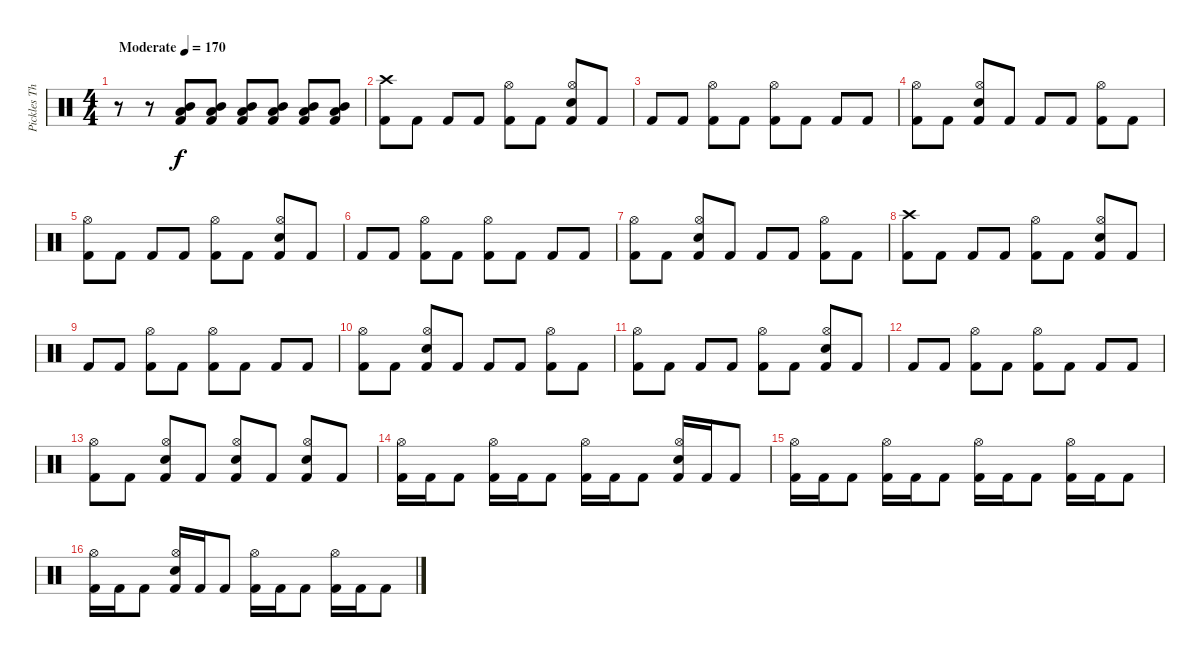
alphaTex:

\track ("Pickles The Drummer" "Pickles Th") {instrument percussion}
\staff {score}
\articulation defaults
\ts (4 4)
\tempo (170 "Moderate")
\clef neutral
\ks c
r.8{dy f} r.8 ("Kick (hit) 2" "Mid Tom (hit)" "Low Tom (hit)").8 ("Kick (hit) 2" "Mid Tom (hit)" "Low Tom (hit)").8 ("Kick (hit) 2" "Mid Tom (hit)" "Low Tom (hit)").8 ("Kick (hit) 2" "Mid Tom (hit)" "Low Tom (hit)").8 ("Kick (hit) 2" "Mid Tom (hit)" "Low Tom (hit)").8 ("Kick (hit) 2" "Mid Tom (hit)" "Low Tom (hit)").8 |
("Kick (hit) 2" "Crash high (hit)").8 "Kick (hit) 2".8 "Kick (hit) 2".8 "Kick (hit) 2".8 ("Kick (hit) 2" "Hi-Hat (open)").8 "Kick (hit) 2".8 ("Kick (hit) 2" "Hi-Hat (open)" "Snare (hit) 2").8 "Kick (hit) 2".8 |
"Kick (hit) 2".8 "Kick (hit) 2".8 ("Kick (hit) 2" "Hi-Hat (open)").8 "Kick (hit) 2".8 ("Kick (hit) 2" "Hi-Hat (open)").8 "Kick (hit) 2".8 "Kick (hit) 2".8 "Kick (hit) 2".8 |
("Kick (hit) 2" "Hi-Hat (open)").8 "Kick (hit) 2".8 ("Kick (hit) 2" "Hi-Hat (open)" "Snare (hit) 2").8 "Kick (hit) 2".8 "Kick (hit) 2".8 "Kick (hit) 2".8 ("Kick (hit) 2" "Hi-Hat (open)").8 "Kick (hit) 2".8 |
("Kick (hit) 2" "Hi-Hat (open)").8 "Kick (hit) 2".8 "Kick (hit) 2".8 "Kick (hit) 2".8 ("Kick (hit) 2" "Hi-Hat (open)").8 "Kick (hit) 2".8 ("Kick (hit) 2" "Hi-Hat (open)" "Snare (hit) 2").8 "Kick (hit) 2".8 |
"Kick (hit) 2".8 "Kick (hit) 2".8 ("Kick (hit) 2" "Hi-Hat (open)").8 "Kick (hit) 2".8 ("Kick (hit) 2" "Hi-Hat (open)").8 "Kick (hit) 2".8 "Kick (hit) 2".8 "Kick (hit) 2".8 |
("Kick (hit) 2" "Hi-Hat (open)").8 "Kick (hit) 2".8 ("Kick (hit) 2" "Hi-Hat (open)" "Snare (hit) 2").8 "Kick (hit) 2".8 "Kick (hit) 2".8 "Kick (hit) 2".8 ("Kick (hit) 2" "Hi-Hat (open)").8 "Kick (hit) 2".8 |
("Kick (hit) 2" "Crash high (hit)").8 "Kick (hit) 2".8 "Kick (hit) 2".8 "Kick (hit) 2".8 ("Kick (hit) 2" "Hi-Hat (open)").8 "Kick (hit) 2".8 ("Kick (hit) 2" "Hi-Hat (open)" "Snare (hit) 2").8 "Kick (hit) 2".8 |
"Kick (hit) 2".8 "Kick (hit) 2".8 ("Kick (hit) 2" "Hi-Hat (open)").8 "Kick (hit) 2".8 ("Kick (hit) 2" "Hi-Hat (open)").8 "Kick (hit) 2".8 "Kick (hit) 2".8 "Kick (hit) 2".8 |
("Kick (hit) 2" "Hi-Hat (open)").8 "Kick (hit) 2".8 ("Kick (hit) 2" "Hi-Hat (open)" "Snare (hit) 2").8 "Kick (hit) 2".8 "Kick (hit) 2".8 "Kick (hit) 2".8 ("Kick (hit) 2" "Hi-Hat (open)").8 "Kick (hit) 2".8 |
("Kick (hit) 2" "Hi-Hat (open)").8 "Kick (hit) 2".8 "Kick (hit) 2".8 "Kick (hit) 2".8 ("Kick (hit) 2" "Hi-Hat (open)").8 "Kick (hit) 2".8 ("Kick (hit) 2" "Hi-Hat (open)" "Snare (hit) 2").8 "Kick (hit) 2".8 |
"Kick (hit) 2".8 "Kick (hit) 2".8 ("Kick (hit) 2" "Hi-Hat (open)").8 "Kick (hit) 2".8 ("Kick (hit) 2" "Hi-Hat (open)").8 "Kick (hit) 2".8 "Kick (hit) 2".8 "Kick (hit) 2".8 |
("Kick (hit) 2" "Hi-Hat (open)").8 "Kick (hit) 2".8 ("Kick (hit) 2" "Hi-Hat (open)" "Snare (hit) 2").8 "Kick (hit) 2".8 ("Kick (hit) 2" "Hi-Hat (open)" "Snare (hit) 2").8 "Kick (hit) 2".8 ("Kick (hit) 2" "Hi-Hat (open)" "Snare (hit) 2").8 "Kick (hit) 2".8 |
("Kick (hit) 2" "Hi-Hat (open)").16 "Kick (hit) 2".16 "Kick (hit) 2".8 ("Kick (hit) 2" "Hi-Hat (open)").16 "Kick (hit) 2".16 "Kick (hit) 2".8 ("Kick (hit) 2" "Hi-Hat (open)").16 "Kick (hit) 2".16 "Kick (hit) 2".8 ("Kick (hit) 2" "Hi-Hat (open)" "Snare (hit) 2").16 "Kick (hit) 2".16 "Kick (hit) 2".8 |
("Kick (hit) 2" "Hi-Hat (open)").16 "Kick (hit) 2".16 "Kick (hit) 2".8 ("Kick (hit) 2" "Hi-Hat (open)").16 "Kick (hit) 2".16 "Kick (hit) 2".8 ("Kick (hit) 2" "Hi-Hat (open)").16 "Kick (hit) 2".16 "Kick (hit) 2".8 ("Kick (hit) 2" "Hi-Hat (open)").16 "Kick (hit) 2".16 "Kick (hit) 2".8 |
("Kick (hit) 2" "Hi-Hat (open)").16 "Kick (hit) 2".16 "Kick (hit) 2".8 ("Kick (hit) 2" "Hi-Hat (open)" "Snare (hit) 2").16 "Kick (hit) 2".16 "Kick (hit) 2".8 ("Kick (hit) 2" "Hi-Hat (open)").16 "Kick (hit) 2".16 "Kick (hit) 2".8 ("Kick (hit) 2" "Hi-Hat (open)").16 "Kick (hit) 2".16 "Kick (hit) 2".8
